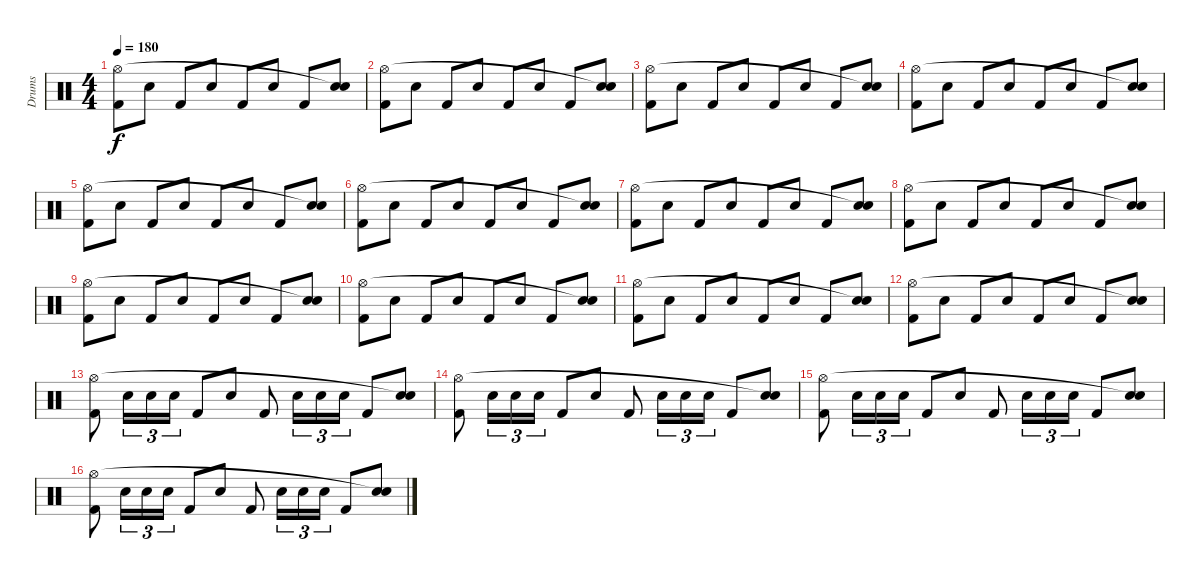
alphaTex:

\track ("Drums" "Drums") {instrument percussion}
\staff {score}
\articulation defaults
\ts (4 4)
\tempo 180
\clef neutral
\ks c
("Kick (hit) 2" "Hi-Hat (open)").8{dy f} "Snare (hit) 2".8 "Kick (hit) 2".8 "Snare (hit) 2".8 "Kick (hit) 2".8 "Snare (hit) 2".8 "Kick (hit) 2".8 ("Snare (hit) 2" "Snare (hit)"{t}).8 |
("Kick (hit) 2" "Hi-Hat (open)").8 "Snare (hit) 2".8 "Kick (hit) 2".8 "Snare (hit) 2".8 "Kick (hit) 2".8 "Snare (hit) 2".8 "Kick (hit) 2".8 ("Snare (hit) 2" "Snare (hit)"{t}).8 |
("Kick (hit) 2" "Hi-Hat (open)").8 "Snare (hit) 2".8 "Kick (hit) 2".8 "Snare (hit) 2".8 "Kick (hit) 2".8 "Snare (hit) 2".8 "Kick (hit) 2".8 ("Snare (hit) 2" "Snare (hit)"{t}).8 |
("Kick (hit) 2" "Hi-Hat (open)").8 "Snare (hit) 2".8 "Kick (hit) 2".8 "Snare (hit) 2".8 "Kick (hit) 2".8 "Snare (hit) 2".8 "Kick (hit) 2".8 ("Snare (hit) 2" "Snare (hit)"{t}).8 |
("Kick (hit) 2" "Hi-Hat (open)").8 "Snare (hit) 2".8 "Kick (hit) 2".8 "Snare (hit) 2".8 "Kick (hit) 2".8 "Snare (hit) 2".8 "Kick (hit) 2".8 ("Snare (hit) 2" "Snare (hit)"{t}).8 |
("Kick (hit) 2" "Hi-Hat (open)").8 "Snare (hit) 2".8 "Kick (hit) 2".8 "Snare (hit) 2".8 "Kick (hit) 2".8 "Snare (hit) 2".8 "Kick (hit) 2".8 ("Snare (hit) 2" "Snare (hit)"{t}).8 |
("Kick (hit) 2" "Hi-Hat (open)").8 "Snare (hit) 2".8 "Kick (hit) 2".8 "Snare (hit) 2".8 "Kick (hit) 2".8 "Snare (hit) 2".8 "Kick (hit) 2".8 ("Snare (hit) 2" "Snare (hit)"{t}).8 |
("Kick (hit) 2" "Hi-Hat (open)").8 "Snare (hit) 2".8 "Kick (hit) 2".8 "Snare (hit) 2".8 "Kick (hit) 2".8 "Snare (hit) 2".8 "Kick (hit) 2".8 ("Snare (hit) 2" "Snare (hit)"{t}).8 |
("Kick (hit) 2" "Hi-Hat (open)").8 "Snare (hit) 2".8 "Kick (hit) 2".8 "Snare (hit) 2".8 "Kick (hit) 2".8 "Snare (hit) 2".8 "Kick (hit) 2".8 ("Snare (hit) 2" "Snare (hit)"{t}).8 |
("Kick (hit) 2" "Hi-Hat (open)").8 "Snare (hit) 2".8 "Kick (hit) 2".8 "Snare (hit) 2".8 "Kick (hit) 2".8 "Snare (hit) 2".8 "Kick (hit) 2".8 ("Snare (hit) 2" "Snare (hit)"{t}).8 |
("Kick (hit) 2" "Hi-Hat (open)").8 "Snare (hit) 2".8 "Kick (hit) 2".8 "Snare (hit) 2".8 "Kick (hit) 2".8 "Snare (hit) 2".8 "Kick (hit) 2".8 ("Snare (hit) 2" "Snare (hit)"{t}).8 |
("Kick (hit) 2" "Hi-Hat (open)").8 "Snare (hit) 2".8 "Kick (hit) 2".8 "Snare (hit) 2".8 "Kick (hit) 2".8 "Snare (hit) 2".8 "Kick (hit) 2".8 ("Snare (hit) 2" "Snare (hit)"{t}).8 |
("Kick (hit) 2" "Hi-Hat (open)").8 "Snare (hit) 2".16{tu (3 2)} "Snare (hit) 2".16{tu (3 2)} "Snare (hit) 2".16{tu (3 2)} "Kick (hit) 2".8 "Snare (hit) 2".8 "Kick (hit) 2".8 "Snare (hit) 2".16{tu (3 2)} "Snare (hit) 2".16{tu (3 2)} "Snare (hit) 2".16{tu (3 2)} "Kick (hit) 2".8 ("Snare (hit) 2" "Snare (hit)"{t}).8 |
("Kick (hit) 2" "Hi-Hat (open)").8 "Snare (hit) 2".16{tu (3 2)} "Snare (hit) 2".16{tu (3 2)} "Snare (hit) 2".16{tu (3 2)} "Kick (hit) 2".8 "Snare (hit) 2".8 "Kick (hit) 2".8 "Snare (hit) 2".16{tu (3 2)} "Snare (hit) 2".16{tu (3 2)} "Snare (hit) 2".16{tu (3 2)} "Kick (hit) 2".8 ("Snare (hit) 2" "Snare (hit)"{t}).8 |
("Kick (hit) 2" "Hi-Hat (open)").8 "Snare (hit) 2".16{tu (3 2)} "Snare (hit) 2".16{tu (3 2)} "Snare (hit) 2".16{tu (3 2)} "Kick (hit) 2".8 "Snare (hit) 2".8 "Kick (hit) 2".8 "Snare (hit) 2".16{tu (3 2)} "Snare (hit) 2".16{tu (3 2)} "Snare (hit) 2".16{tu (3 2)} "Kick (hit) 2".8 ("Snare (hit) 2" "Snare (hit)"{t}).8 |
("Kick (hit) 2" "Hi-Hat (open)").8 "Snare (hit) 2".16{tu (3 2)} "Snare (hit) 2".16{tu (3 2)} "Snare (hit) 2".16{tu (3 2)} "Kick (hit) 2".8 "Snare (hit) 2".8 "Kick (hit) 2".8 "Snare (hit) 2".16{tu (3 2)} "Snare (hit) 2".16{tu (3 2)} "Snare (hit) 2".16{tu (3 2)} "Kick (hit) 2".8 ("Snare (hit) 2" "Snare (hit)"{t}).8
